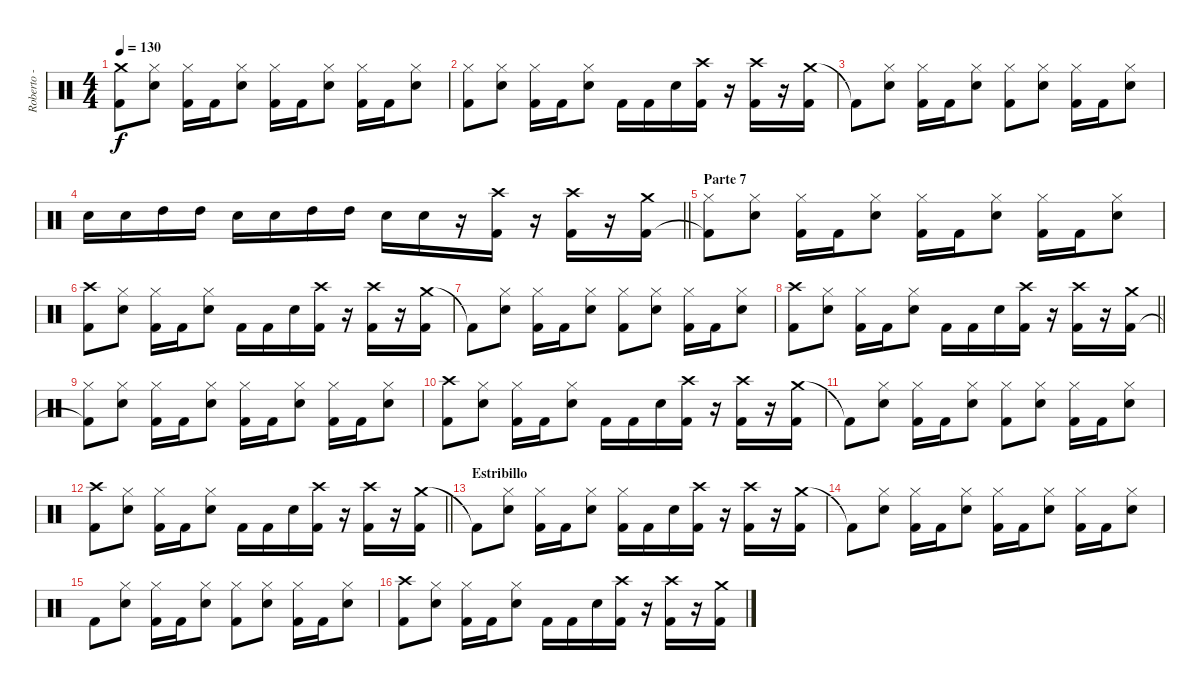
\track ("Roberto - Bateria" "Roberto - ") {instrument percussion}
\staff {score}
\articulation defaults
\ts (4 4)
\tempo 130
\clef neutral
\ks c
("Crash medium (hit)" "Kick (hit) 2").8{dy f} ("Hi-Hat (closed)" "Snare (hit) 2").8 ("Hi-Hat (closed)" "Kick (hit) 2").16 "Kick (hit) 2".16 ("Hi-Hat (closed)" "Snare (hit) 2").8 ("Hi-Hat (closed)" "Kick (hit) 2").16 "Kick (hit) 2".16 ("Hi-Hat (closed)" "Snare (hit) 2").8 ("Hi-Hat (closed)" "Kick (hit) 2").16 "Kick (hit) 2".16 ("Hi-Hat (closed)" "Snare (hit) 2").8 |
("Hi-Hat (closed)" "Kick (hit) 2").8 ("Hi-Hat (closed)" "Snare (hit) 2").8 ("Hi-Hat (closed)" "Kick (hit) 2").16 "Kick (hit) 2".16 ("Hi-Hat (closed)" "Snare (hit) 2").8 "Kick (hit) 2".16 "Kick (hit) 2".16 "Snare (hit) 2".16 ("Crash high (hit)" "Kick (hit) 2").16 r.16 ("Crash high (hit)" "Kick (hit) 2").16 r.16 ("Crash medium (hit)" "Kick (hit) 2").16 |
"Kick (hit) 2"{t}.8 ("Hi-Hat (closed)" "Snare (hit) 2").8 ("Hi-Hat (closed)" "Kick (hit) 2").16 "Kick (hit) 2".16 ("Hi-Hat (closed)" "Snare (hit) 2").8 ("Hi-Hat (closed)" "Kick (hit) 2").8 ("Hi-Hat (closed)" "Snare (hit) 2").8 ("Hi-Hat (closed)" "Kick (hit) 2").16 "Kick (hit) 2".16 ("Hi-Hat (closed)" "Snare (hit) 2").8 |
\barLineRight lightlight "Snare (hit) 2".16 "Snare (hit) 2".16 "High Tom (hit)".16 "High Tom (hit)".16 "Snare (hit) 2".16 "Snare (hit) 2".16 "High Tom (hit)".16 "High Tom (hit)".16 "Snare (hit) 2".16 "Snare (hit) 2".16
r.16 ("Crash high (hit)" "Kick (hit) 2").16 r.16 ("Crash high (hit)" "Kick (hit) 2").16 r.16 ("Crash medium (hit)" "Kick (hit) 2").16 |
\section ("" "Parte 7")
("Hi-Hat (closed)" "Kick (hit) 2"{t}).8 ("Hi-Hat (closed)" "Snare (hit) 2").8 ("Hi-Hat (closed)" "Kick (hit) 2").16 "Kick (hit) 2".16 ("Hi-Hat (closed)" "Snare (hit) 2").8 ("Hi-Hat (closed)" "Kick (hit) 2").16 "Kick (hit) 2".16 ("Hi-Hat (closed)" "Snare (hit) 2").8 ("Hi-Hat (closed)" "Kick (hit) 2").16 "Kick (hit) 2".16 ("Hi-Hat (closed)" "Snare (hit) 2").8 |
("Crash high (hit)" "Kick (hit) 2").8 ("Hi-Hat (closed)" "Snare (hit) 2").8 ("Hi-Hat (closed)" "Kick (hit) 2").16 "Kick (hit) 2".16 ("Hi-Hat (closed)" "Snare (hit) 2").8 "Kick (hit) 2".16 "Kick (hit) 2".16 "Snare (hit) 2".16 ("Crash high (hit)" "Kick (hit) 2").16 r.16 ("Crash high (hit)" "Kick (hit) 2").16 r.16 ("Crash medium (hit)" "Kick (hit) 2").16 |
"Kick (hit) 2"{t}.8 ("Hi-Hat (closed)" "Snare (hit) 2").8 ("Hi-Hat (closed)" "Kick (hit) 2").16 "Kick (hit) 2".16 ("Hi-Hat (closed)" "Snare (hit) 2").8 ("Hi-Hat (closed)" "Kick (hit) 2").8 ("Hi-Hat (closed)" "Snare (hit) 2").8 ("Hi-Hat (closed)" "Kick (hit) 2").16 "Kick (hit) 2".16 ("Hi-Hat (closed)" "Snare (hit) 2").8 |
\barLineRight lightlight
("Crash high (hit)" "Kick (hit) 2").8 ("Hi-Hat (closed)" "Snare (hit) 2").8 ("Hi-Hat (closed)" "Kick (hit) 2").16 "Kick (hit) 2".16 ("Hi-Hat (closed)" "Snare (hit) 2").8 "Kick (hit) 2".16 "Kick (hit) 2".16 "Snare (hit) 2".16 ("Crash high (hit)" "Kick (hit) 2").16 r.16 ("Crash high (hit)" "Kick (hit) 2").16 r.16 ("Crash medium (hit)" "Kick (hit) 2").16 |
("Hi-Hat (closed)" "Kick (hit) 2"{t}).8 ("Hi-Hat (closed)" "Snare (hit) 2").8 ("Hi-Hat (closed)" "Kick (hit) 2").16 "Kick (hit) 2".16 ("Hi-Hat (closed)" "Snare (hit) 2").8 ("Hi-Hat (closed)" "Kick (hit) 2").16 "Kick (hit) 2".16 ("Hi-Hat (closed)" "Snare (hit) 2").8 ("Hi-Hat (closed)" "Kick (hit) 2").16 "Kick (hit) 2".16 ("Hi-Hat (closed)" "Snare (hit) 2").8 |
("Crash high (hit)" "Kick (hit) 2").8 ("Hi-Hat (closed)" "Snare (hit) 2").8 ("Hi-Hat (closed)" "Kick (hit) 2").16 "Kick (hit) 2".16 ("Hi-Hat (closed)" "Snare (hit) 2").8 "Kick (hit) 2".16 "Kick (hit) 2".16 "Snare (hit) 2".16 ("Crash high (hit)" "Kick (hit) 2").16 r.16 ("Crash high (hit)" "Kick (hit) 2").16 r.16 ("Crash medium (hit)" "Kick (hit) 2").16 |
"Kick (hit) 2"{t}.8 ("Hi-Hat (closed)" "Snare (hit) 2").8 ("Hi-Hat (closed)" "Kick (hit) 2").16 "Kick (hit) 2".16 ("Hi-Hat (closed)" "Snare (hit) 2").8 ("Hi-Hat (closed)" "Kick (hit) 2").8 ("Hi-Hat (closed)" "Snare (hit) 2").8 ("Hi-Hat (closed)" "Kick (hit) 2").16 "Kick (hit) 2".16 ("Hi-Hat (closed)" "Snare (hit) 2").8 |
\barLineRight lightlight
("Crash high (hit)" "Kick (hit) 2").8 ("Hi-Hat (closed)" "Snare (hit) 2").8 ("Hi-Hat (closed)" "Kick (hit) 2").16 "Kick (hit) 2".16 ("Hi-Hat (closed)" "Snare (hit) 2").8 "Kick (hit) 2".16 "Kick (hit) 2".16 "Snare (hit) 2".16 ("Crash high (hit)" "Kick (hit) 2").16 r.16 ("Crash high (hit)" "Kick (hit) 2").16 r.16 ("Crash medium (hit)" "Kick (hit) 2").16 |
\section ("" "Estribillo")
"Kick (hit) 2"{t}.8 ("Hi-Hat (closed)" "Snare (hit) 2").8 ("Hi-Hat (closed)" "Kick (hit) 2").16 "Kick (hit) 2".16 ("Hi-Hat (closed)" "Snare (hit) 2").8 ("Hi-Hat (closed)" "Kick (hit) 2").16 "Kick (hit) 2".16 "Snare (hit) 2".16 ("Crash high (hit)" "Kick (hit) 2").16 r.16 ("Crash high (hit)" "Kick (hit) 2").16 r.16 ("Crash medium (hit)" "Kick (hit) 2").16 |
"Kick (hit) 2"{t}.8 ("Hi-Hat (closed)" "Snare (hit) 2").8 ("Hi-Hat (closed)" "Kick (hit) 2").16 "Kick (hit) 2".16 ("Hi-Hat (closed)" "Snare (hit) 2").8 ("Hi-Hat (closed)" "Kick (hit) 2").16 "Kick (hit) 2".16 ("Hi-Hat (closed)" "Snare (hit) 2").8 ("Hi-Hat (closed)" "Kick (hit) 2").16 "Kick (hit) 2".16 ("Hi-Hat (closed)" "Snare (hit) 2").8 |
"Kick (hit) 2".8 ("Hi-Hat (closed)" "Snare (hit) 2").8 ("Hi-Hat (closed)" "Kick (hit) 2").16 "Kick (hit) 2".16 ("Hi-Hat (closed)" "Snare (hit) 2").8 ("Hi-Hat (closed)" "Kick (hit) 2").8 ("Hi-Hat (closed)" "Snare (hit) 2").8 ("Hi-Hat (closed)" "Kick (hit) 2").16 "Kick (hit) 2".16 ("Hi-Hat (closed)" "Snare (hit) 2").8 |
("Crash high (hit)" "Kick (hit) 2").8 ("Hi-Hat (closed)" "Snare (hit) 2").8 ("Hi-Hat (closed)" "Kick (hit) 2").16 "Kick (hit) 2".16 ("Hi-Hat (closed)" "Snare (hit) 2").8 "Kick (hit) 2".16 "Kick (hit) 2".16 "Snare (hit) 2".16 ("Crash high (hit)" "Kick (hit) 2").16 r.16 ("Crash high (hit)" "Kick (hit) 2").16 r.16 ("Crash medium (hit)" "Kick (hit) 2").16
